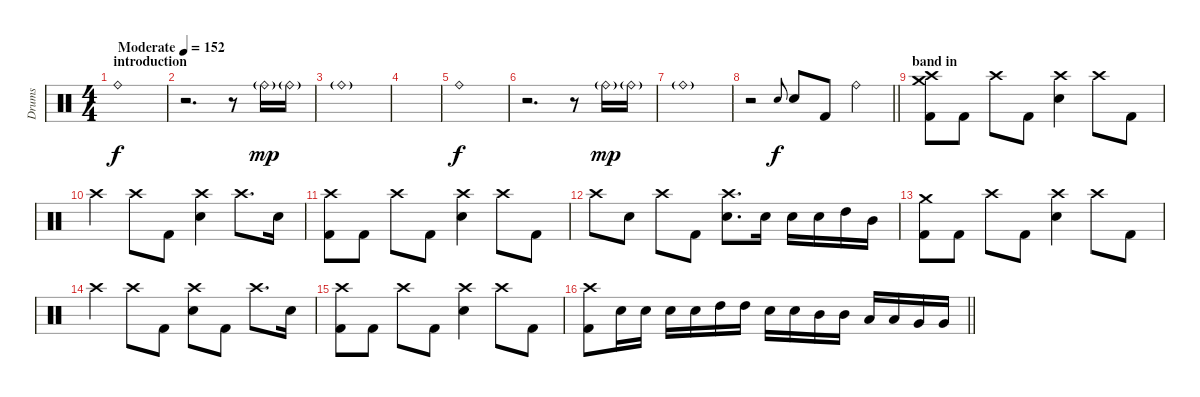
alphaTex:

\track ("Drums" "Drums") {instrument percussion}
\staff {score}
\articulation defaults
\ts (4 4)
\section ("" "introduction")
\tempo (152 "Moderate")
\clef neutral
\ks c "Ride (bell)".1{dy f}
|
r.2{d} r.8 "Ride (bell)"{g}.16{dy mp} "Ride (bell)"{g}.16 |
"Ride (bell)"{g}.1 |
|
"Ride (bell)".1{dy f} |
r.2{d} r.8 "Ride (bell)"{g}.16{dy mp} "Ride (bell)"{g}.16 |
"Ride (bell)"{g}.1 |
\barLineRight lightlight
r.2 "Electric Snare (hit)".8{gr onbeat dy f} "Electric Snare (hit)".8 "Kick (hit) 2".8 "Ride (bell)".4 |
\section ("" "band in")
("Crash high (hit)" "Crash medium (hit)" "Kick (hit) 2").8 "Kick (hit) 2".8 "Crash high (hit)".8 "Kick (hit) 2".8 ("Crash high (hit)" "Electric Snare (hit)").4 "Crash high (hit)".8 "Kick (hit) 2".8 |
"Crash high (hit)".4 "Crash high (hit)".8 "Kick (hit) 2".8 ("Crash high (hit)" "Electric Snare (hit)").4 "Crash high (hit)".8{d} "Electric Snare (hit)".16 |
("Crash high (hit)" "Kick (hit) 2").8 "Kick (hit) 2".8 "Crash high (hit)".8 "Kick (hit) 2".8 ("Crash high (hit)" "Electric Snare (hit)").4 "Crash high (hit)".8 "Kick (hit) 2".8 |
"Crash high (hit)".8 "Electric Snare (hit)".8 "Crash high (hit)".8 "Kick (hit) 2".8 ("Crash high (hit)" "Electric Snare (hit)").8{d} "Electric Snare (hit)".16 "Electric Snare (hit)".16 "Electric Snare (hit)".16 "High Tom (hit)".16 "Mid Tom (hit)".16 |
("Crash medium (hit)" "Kick (hit) 2").8 "Kick (hit) 2".8 "Crash high (hit)".8 "Kick (hit) 2".8 ("Crash high (hit)" "Electric Snare (hit)").4 "Crash high (hit)".8 "Kick (hit) 2".8 |
"Crash high (hit)".4 "Crash high (hit)".8 "Kick (hit) 2".8 ("Crash high (hit)" "Electric Snare (hit)").8 "Kick (hit) 2".8 "Crash high (hit)".8{d} "Electric Snare (hit)".16 |
("Crash high (hit)" "Kick (hit) 2").8 "Kick (hit) 2".8 "Crash high (hit)".8 "Kick (hit) 2".8 ("Crash high (hit)" "Electric Snare (hit)").4 "Crash high (hit)".8 "Kick (hit) 2".8 |
\barLineRight lightlight
("Crash high (hit)" "Kick (hit) 2").8 "Electric Snare (hit)".16 "Electric Snare (hit)".16 "Electric Snare (hit)".16 "Electric Snare (hit)".16 "High Tom (hit)".16 "High Tom (hit)".16 "Electric Snare (hit)".16 "Electric Snare (hit)".16 "Mid Tom (hit)".16 "Mid Tom (hit)".16 "Low Tom (hit)".16 "Low Tom (hit)".16 "Very Low Tom (hit)".16 "Very Low Tom (hit)".16
